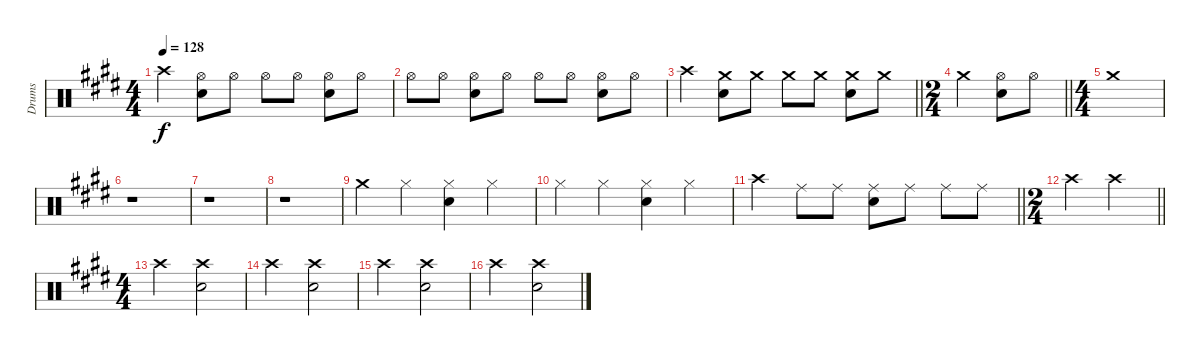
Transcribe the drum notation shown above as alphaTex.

\track ("Drums" "Drums") {instrument percussion}
\staff {score}
\articulation defaults
\ts (4 4)
\tempo 128
\clef neutral
\ks e "Crash high (hit)".4{dy f}
("Hi-Hat (open)" "Snare (hit) 2").8 "Hi-Hat (open)".8 "Hi-Hat (open)".8 "Hi-Hat (open)".8 ("Hi-Hat (open)" "Snare (hit) 2").8 "Hi-Hat (open)".8 |
"Hi-Hat (open)".8 "Hi-Hat (open)".8 ("Hi-Hat (open)" "Snare (hit) 2").8 "Hi-Hat (open)".8 "Hi-Hat (open)".8 "Hi-Hat (open)".8 ("Hi-Hat (open)" "Snare (hit) 2").8 "Hi-Hat (open)".8 |
\barLineRight lightlight "Crash high (hit)".4
("Crash medium (hit)" "Snare (hit) 2").8 "Crash medium (hit)".8 "Crash medium (hit)".8 "Crash medium (hit)".8 ("Crash medium (hit)" "Snare (hit) 2").8 "Crash medium (hit)".8 |
\ts (2 4)
\barLineRight lightlight "Crash medium (hit)".4
("Hi-Hat (open)" "Snare (hit) 2").8 "Hi-Hat (open)".8 |
\ts (4 4)
"Crash medium (hit)".1 |
r.1 |
r.1 |
r.1 |
"Crash medium (hit)".4 "Hi-Hat (closed)".4 ("Hi-Hat (closed)" "Snare (hit) 2").4 "Hi-Hat (closed)".4 |
"Hi-Hat (closed)".4 "Hi-Hat (closed)".4 ("Hi-Hat (closed)" "Snare (hit) 2").4 "Hi-Hat (closed)".4 |
\barLineRight lightlight "Crash high (hit)".4 "Ride (middle)".8 "Ride (middle)".8
("Ride (middle)" "Snare (hit) 2").8 "Ride (middle)".8 "Ride (middle)".8 "Ride (middle)".8 |
\ts (2 4)
\barLineRight lightlight "Crash high (hit)".4 "Crash high (hit)".4
|
\ts (4 4)
"Crash high (hit)".2 ("Crash high (hit)" "Snare (hit) 2").2 |
"Crash high (hit)".2 ("Crash high (hit)" "Snare (hit) 2").2 |
"Crash high (hit)".2 ("Crash high (hit)" "Snare (hit) 2").2 |
"Crash high (hit)".2 ("Crash high (hit)" "Snare (hit) 2").2
